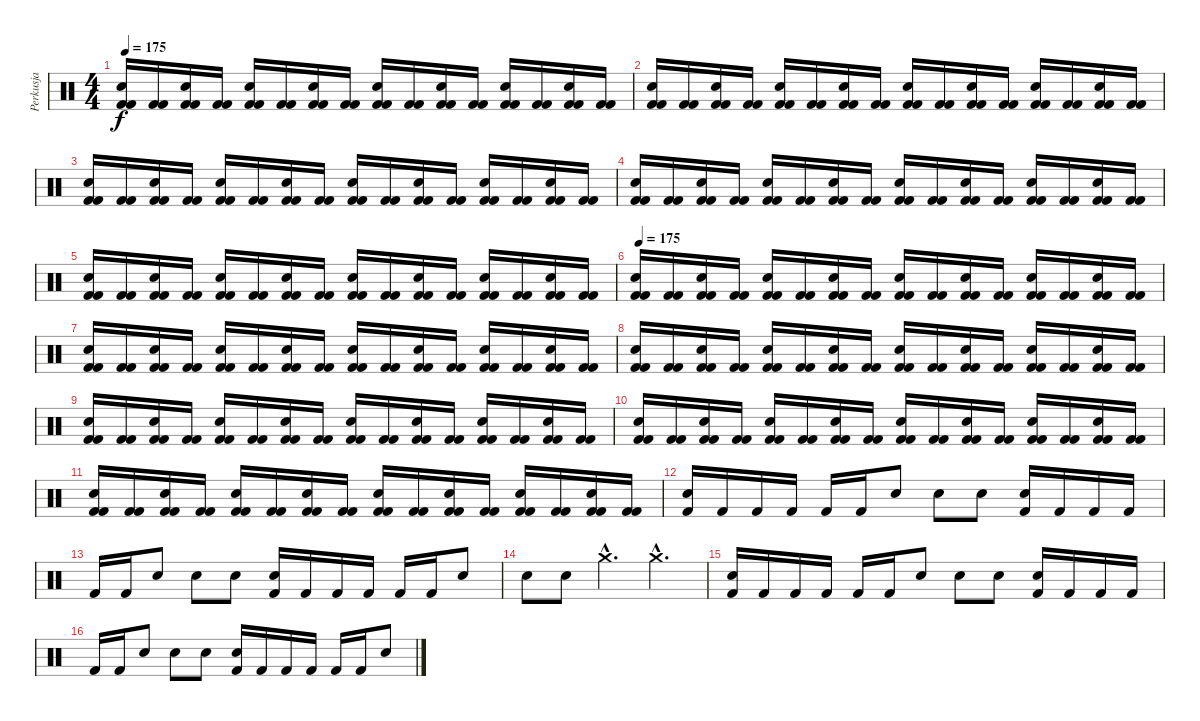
\track ("Perkusja" "Perkusja") {instrument percussion}
\staff {score}
\articulation defaults
\ts (4 4)
\tempo 175
\clef neutral
\ks c
("Snare (hit) 2" "Kick (hit) 2" "Kick (hit) 2").16{dy f} ("Kick (hit) 2" "Kick (hit) 2").16 ("Snare (hit) 2" "Kick (hit) 2" "Kick (hit) 2").16 ("Kick (hit) 2" "Kick (hit) 2").16 ("Snare (hit) 2" "Kick (hit) 2" "Kick (hit) 2").16 ("Kick (hit) 2" "Kick (hit) 2").16 ("Snare (hit) 2" "Kick (hit) 2" "Kick (hit) 2").16 ("Kick (hit) 2" "Kick (hit) 2").16 ("Snare (hit) 2" "Kick (hit) 2" "Kick (hit) 2").16 ("Kick (hit) 2" "Kick (hit) 2").16 ("Snare (hit) 2" "Kick (hit) 2" "Kick (hit) 2").16 ("Kick (hit) 2" "Kick (hit) 2").16 ("Snare (hit) 2" "Kick (hit) 2" "Kick (hit) 2").16 ("Kick (hit) 2" "Kick (hit) 2").16 ("Snare (hit) 2" "Kick (hit) 2" "Kick (hit) 2").16 ("Kick (hit) 2" "Kick (hit) 2").16 |
("Snare (hit) 2" "Kick (hit) 2" "Kick (hit) 2").16 ("Kick (hit) 2" "Kick (hit) 2").16 ("Snare (hit) 2" "Kick (hit) 2" "Kick (hit) 2").16 ("Kick (hit) 2" "Kick (hit) 2").16 ("Snare (hit) 2" "Kick (hit) 2" "Kick (hit) 2").16 ("Kick (hit) 2" "Kick (hit) 2").16 ("Snare (hit) 2" "Kick (hit) 2" "Kick (hit) 2").16 ("Kick (hit) 2" "Kick (hit) 2").16 ("Snare (hit) 2" "Kick (hit) 2" "Kick (hit) 2").16 ("Kick (hit) 2" "Kick (hit) 2").16 ("Snare (hit) 2" "Kick (hit) 2" "Kick (hit) 2").16 ("Kick (hit) 2" "Kick (hit) 2").16 ("Snare (hit) 2" "Kick (hit) 2" "Kick (hit) 2").16 ("Kick (hit) 2" "Kick (hit) 2").16 ("Snare (hit) 2" "Kick (hit) 2" "Kick (hit) 2").16 ("Kick (hit) 2" "Kick (hit) 2").16 |
("Snare (hit) 2" "Kick (hit) 2" "Kick (hit) 2").16 ("Kick (hit) 2" "Kick (hit) 2").16 ("Snare (hit) 2" "Kick (hit) 2" "Kick (hit) 2").16 ("Kick (hit) 2" "Kick (hit) 2").16 ("Snare (hit) 2" "Kick (hit) 2" "Kick (hit) 2").16 ("Kick (hit) 2" "Kick (hit) 2").16 ("Snare (hit) 2" "Kick (hit) 2" "Kick (hit) 2").16 ("Kick (hit) 2" "Kick (hit) 2").16 ("Snare (hit) 2" "Kick (hit) 2" "Kick (hit) 2").16 ("Kick (hit) 2" "Kick (hit) 2").16 ("Snare (hit) 2" "Kick (hit) 2" "Kick (hit) 2").16 ("Kick (hit) 2" "Kick (hit) 2").16 ("Snare (hit) 2" "Kick (hit) 2" "Kick (hit) 2").16 ("Kick (hit) 2" "Kick (hit) 2").16 ("Snare (hit) 2" "Kick (hit) 2" "Kick (hit) 2").16 ("Kick (hit) 2" "Kick (hit) 2").16 |
("Snare (hit) 2" "Kick (hit) 2" "Kick (hit) 2").16 ("Kick (hit) 2" "Kick (hit) 2").16 ("Snare (hit) 2" "Kick (hit) 2" "Kick (hit) 2").16 ("Kick (hit) 2" "Kick (hit) 2").16 ("Snare (hit) 2" "Kick (hit) 2" "Kick (hit) 2").16 ("Kick (hit) 2" "Kick (hit) 2").16 ("Snare (hit) 2" "Kick (hit) 2" "Kick (hit) 2").16 ("Kick (hit) 2" "Kick (hit) 2").16 ("Snare (hit) 2" "Kick (hit) 2" "Kick (hit) 2").16 ("Kick (hit) 2" "Kick (hit) 2").16 ("Snare (hit) 2" "Kick (hit) 2" "Kick (hit) 2").16 ("Kick (hit) 2" "Kick (hit) 2").16 ("Snare (hit) 2" "Kick (hit) 2" "Kick (hit) 2").16 ("Kick (hit) 2" "Kick (hit) 2").16 ("Snare (hit) 2" "Kick (hit) 2" "Kick (hit) 2").16 ("Kick (hit) 2" "Kick (hit) 2").16 |
("Snare (hit) 2" "Kick (hit) 2" "Kick (hit) 2").16 ("Kick (hit) 2" "Kick (hit) 2").16 ("Snare (hit) 2" "Kick (hit) 2" "Kick (hit) 2").16 ("Kick (hit) 2" "Kick (hit) 2").16 ("Snare (hit) 2" "Kick (hit) 2" "Kick (hit) 2").16 ("Kick (hit) 2" "Kick (hit) 2").16 ("Snare (hit) 2" "Kick (hit) 2" "Kick (hit) 2").16 ("Kick (hit) 2" "Kick (hit) 2").16 ("Snare (hit) 2" "Kick (hit) 2" "Kick (hit) 2").16 ("Kick (hit) 2" "Kick (hit) 2").16 ("Snare (hit) 2" "Kick (hit) 2" "Kick (hit) 2").16 ("Kick (hit) 2" "Kick (hit) 2").16 ("Snare (hit) 2" "Kick (hit) 2" "Kick (hit) 2").16 ("Kick (hit) 2" "Kick (hit) 2").16 ("Snare (hit) 2" "Kick (hit) 2" "Kick (hit) 2").16 ("Kick (hit) 2" "Kick (hit) 2").16 |
\tempo 175
("Snare (hit) 2" "Kick (hit) 2" "Kick (hit) 2").16 ("Kick (hit) 2" "Kick (hit) 2").16 ("Snare (hit) 2" "Kick (hit) 2" "Kick (hit) 2").16 ("Kick (hit) 2" "Kick (hit) 2").16 ("Snare (hit) 2" "Kick (hit) 2" "Kick (hit) 2").16 ("Kick (hit) 2" "Kick (hit) 2").16 ("Snare (hit) 2" "Kick (hit) 2" "Kick (hit) 2").16 ("Kick (hit) 2" "Kick (hit) 2").16 ("Snare (hit) 2" "Kick (hit) 2" "Kick (hit) 2").16 ("Kick (hit) 2" "Kick (hit) 2").16 ("Snare (hit) 2" "Kick (hit) 2" "Kick (hit) 2").16 ("Kick (hit) 2" "Kick (hit) 2").16 ("Snare (hit) 2" "Kick (hit) 2" "Kick (hit) 2").16 ("Kick (hit) 2" "Kick (hit) 2").16 ("Snare (hit) 2" "Kick (hit) 2" "Kick (hit) 2").16 ("Kick (hit) 2" "Kick (hit) 2").16 |
("Snare (hit) 2" "Kick (hit) 2" "Kick (hit) 2").16 ("Kick (hit) 2" "Kick (hit) 2").16 ("Snare (hit) 2" "Kick (hit) 2" "Kick (hit) 2").16 ("Kick (hit) 2" "Kick (hit) 2").16 ("Snare (hit) 2" "Kick (hit) 2" "Kick (hit) 2").16 ("Kick (hit) 2" "Kick (hit) 2").16 ("Snare (hit) 2" "Kick (hit) 2" "Kick (hit) 2").16 ("Kick (hit) 2" "Kick (hit) 2").16 ("Snare (hit) 2" "Kick (hit) 2" "Kick (hit) 2").16 ("Kick (hit) 2" "Kick (hit) 2").16 ("Snare (hit) 2" "Kick (hit) 2" "Kick (hit) 2").16 ("Kick (hit) 2" "Kick (hit) 2").16 ("Snare (hit) 2" "Kick (hit) 2" "Kick (hit) 2").16 ("Kick (hit) 2" "Kick (hit) 2").16 ("Snare (hit) 2" "Kick (hit) 2" "Kick (hit) 2").16 ("Kick (hit) 2" "Kick (hit) 2").16 |
("Snare (hit) 2" "Kick (hit) 2" "Kick (hit) 2").16 ("Kick (hit) 2" "Kick (hit) 2").16 ("Snare (hit) 2" "Kick (hit) 2" "Kick (hit) 2").16 ("Kick (hit) 2" "Kick (hit) 2").16 ("Snare (hit) 2" "Kick (hit) 2" "Kick (hit) 2").16 ("Kick (hit) 2" "Kick (hit) 2").16 ("Snare (hit) 2" "Kick (hit) 2" "Kick (hit) 2").16 ("Kick (hit) 2" "Kick (hit) 2").16 ("Snare (hit) 2" "Kick (hit) 2" "Kick (hit) 2").16 ("Kick (hit) 2" "Kick (hit) 2").16 ("Snare (hit) 2" "Kick (hit) 2" "Kick (hit) 2").16 ("Kick (hit) 2" "Kick (hit) 2").16 ("Snare (hit) 2" "Kick (hit) 2" "Kick (hit) 2").16 ("Kick (hit) 2" "Kick (hit) 2").16 ("Snare (hit) 2" "Kick (hit) 2" "Kick (hit) 2").16 ("Kick (hit) 2" "Kick (hit) 2").16 |
("Snare (hit) 2" "Kick (hit) 2" "Kick (hit) 2").16 ("Kick (hit) 2" "Kick (hit) 2").16 ("Snare (hit) 2" "Kick (hit) 2" "Kick (hit) 2").16 ("Kick (hit) 2" "Kick (hit) 2").16 ("Snare (hit) 2" "Kick (hit) 2" "Kick (hit) 2").16 ("Kick (hit) 2" "Kick (hit) 2").16 ("Snare (hit) 2" "Kick (hit) 2" "Kick (hit) 2").16 ("Kick (hit) 2" "Kick (hit) 2").16 ("Snare (hit) 2" "Kick (hit) 2" "Kick (hit) 2").16 ("Kick (hit) 2" "Kick (hit) 2").16 ("Snare (hit) 2" "Kick (hit) 2" "Kick (hit) 2").16 ("Kick (hit) 2" "Kick (hit) 2").16 ("Snare (hit) 2" "Kick (hit) 2" "Kick (hit) 2").16 ("Kick (hit) 2" "Kick (hit) 2").16 ("Snare (hit) 2" "Kick (hit) 2" "Kick (hit) 2").16 ("Kick (hit) 2" "Kick (hit) 2").16 |
("Snare (hit) 2" "Kick (hit) 2" "Kick (hit) 2").16 ("Kick (hit) 2" "Kick (hit) 2").16 ("Snare (hit) 2" "Kick (hit) 2" "Kick (hit) 2").16 ("Kick (hit) 2" "Kick (hit) 2").16 ("Snare (hit) 2" "Kick (hit) 2" "Kick (hit) 2").16 ("Kick (hit) 2" "Kick (hit) 2").16 ("Snare (hit) 2" "Kick (hit) 2" "Kick (hit) 2").16 ("Kick (hit) 2" "Kick (hit) 2").16 ("Snare (hit) 2" "Kick (hit) 2" "Kick (hit) 2").16 ("Kick (hit) 2" "Kick (hit) 2").16 ("Snare (hit) 2" "Kick (hit) 2" "Kick (hit) 2").16 ("Kick (hit) 2" "Kick (hit) 2").16 ("Snare (hit) 2" "Kick (hit) 2" "Kick (hit) 2").16 ("Kick (hit) 2" "Kick (hit) 2").16 ("Snare (hit) 2" "Kick (hit) 2" "Kick (hit) 2").16 ("Kick (hit) 2" "Kick (hit) 2").16 |
("Snare (hit) 2" "Kick (hit) 2" "Kick (hit) 2").16 ("Kick (hit) 2" "Kick (hit) 2").16 ("Snare (hit) 2" "Kick (hit) 2" "Kick (hit) 2").16 ("Kick (hit) 2" "Kick (hit) 2").16 ("Snare (hit) 2" "Kick (hit) 2" "Kick (hit) 2").16 ("Kick (hit) 2" "Kick (hit) 2").16 ("Snare (hit) 2" "Kick (hit) 2" "Kick (hit) 2").16 ("Kick (hit) 2" "Kick (hit) 2").16 ("Snare (hit) 2" "Kick (hit) 2" "Kick (hit) 2").16 ("Kick (hit) 2" "Kick (hit) 2").16 ("Snare (hit) 2" "Kick (hit) 2" "Kick (hit) 2").16 ("Kick (hit) 2" "Kick (hit) 2").16 ("Snare (hit) 2" "Kick (hit) 2" "Kick (hit) 2").16 ("Kick (hit) 2" "Kick (hit) 2").16 ("Snare (hit) 2" "Kick (hit) 2" "Kick (hit) 2").16 ("Kick (hit) 2" "Kick (hit) 2").16 |
("Snare (hit) 2" "Kick (hit) 2").16 "Kick (hit) 2".16 "Kick (hit) 2".16 "Kick (hit) 2".16 "Kick (hit) 2".16 "Kick (hit) 2".16 "Snare (hit) 2".8 "Snare (hit) 2".8 "Snare (hit) 2".8 ("Snare (hit) 2" "Kick (hit) 2").16 "Kick (hit) 2".16 "Kick (hit) 2".16 "Kick (hit) 2".16 |
"Kick (hit) 2".16 "Kick (hit) 2".16 "Snare (hit) 2".8 "Snare (hit) 2".8 "Snare (hit) 2".8 ("Snare (hit) 2" "Kick (hit) 2").16 "Kick (hit) 2".16 "Kick (hit) 2".16 "Kick (hit) 2".16 "Kick (hit) 2".16 "Kick (hit) 2".16 "Snare (hit) 2".8 |
"Snare (hit) 2".8 "Snare (hit) 2".8 "Crash medium (hit)"{hac}.4{d} "Crash medium (hit)"{hac}.4{d} |
("Snare (hit) 2" "Kick (hit) 2").16 "Kick (hit) 2".16 "Kick (hit) 2".16 "Kick (hit) 2".16 "Kick (hit) 2".16 "Kick (hit) 2".16 "Snare (hit) 2".8 "Snare (hit) 2".8 "Snare (hit) 2".8 ("Snare (hit) 2" "Kick (hit) 2").16 "Kick (hit) 2".16 "Kick (hit) 2".16 "Kick (hit) 2".16 |
"Kick (hit) 2".16 "Kick (hit) 2".16 "Snare (hit) 2".8 "Snare (hit) 2".8 "Snare (hit) 2".8 ("Snare (hit) 2" "Kick (hit) 2").16 "Kick (hit) 2".16 "Kick (hit) 2".16 "Kick (hit) 2".16 "Kick (hit) 2".16 "Kick (hit) 2".16 "Snare (hit) 2".8
